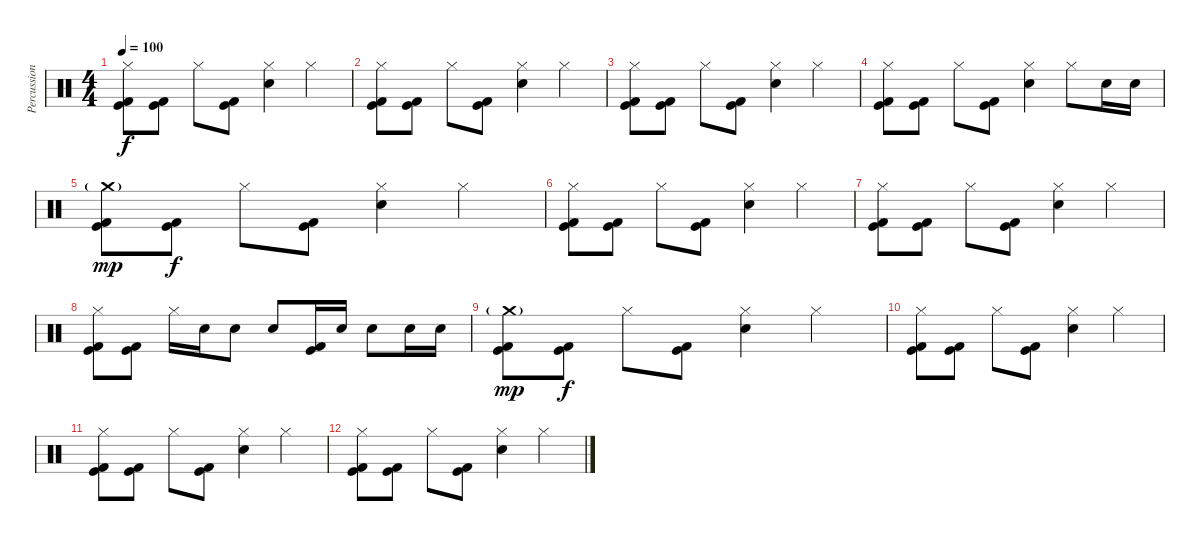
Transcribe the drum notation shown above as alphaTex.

\track ("Percussion" "Percussion") {instrument percussion}
\staff {score}
\articulation defaults
\ts (4 4)
\tempo 100
\clef neutral
\ks c
("Hi-Hat (closed)" "Kick (hit)" "Kick (hit) 2").8{dy f volume 8} ("Kick (hit)" "Kick (hit) 2").8 "Hi-Hat (closed)".8 ("Kick (hit)" "Kick (hit) 2").8 ("Hi-Hat (closed)" "Electric Snare (hit)").4 "Hi-Hat (closed)".4 |
("Hi-Hat (closed)" "Kick (hit)" "Kick (hit) 2").8 ("Kick (hit)" "Kick (hit) 2").8 "Hi-Hat (closed)".8 ("Kick (hit)" "Kick (hit) 2").8 ("Hi-Hat (closed)" "Electric Snare (hit)").4 "Hi-Hat (closed)".4 |
("Hi-Hat (closed)" "Kick (hit)" "Kick (hit) 2").8 ("Kick (hit)" "Kick (hit) 2").8 "Hi-Hat (closed)".8 ("Kick (hit)" "Kick (hit) 2").8 ("Hi-Hat (closed)" "Electric Snare (hit)").4 "Hi-Hat (closed)".4 |
("Hi-Hat (closed)" "Kick (hit)" "Kick (hit) 2").8 ("Kick (hit)" "Kick (hit) 2").8 "Hi-Hat (closed)".8 ("Kick (hit)" "Kick (hit) 2").8 ("Hi-Hat (closed)" "Electric Snare (hit)").4 "Hi-Hat (closed)".8 "Electric Snare (hit)".16 "Electric Snare (hit)".16 |
("Crash medium (hit)"{g} "Kick (hit)" "Kick (hit) 2").8{dy mp volume 4} ("Kick (hit)" "Kick (hit) 2").8{dy f} "Hi-Hat (closed)".8 ("Kick (hit)" "Kick (hit) 2").8 ("Hi-Hat (closed)" "Electric Snare (hit)").4 "Hi-Hat (closed)".4 |
("Hi-Hat (closed)" "Kick (hit)" "Kick (hit) 2").8 ("Kick (hit)" "Kick (hit) 2").8 "Hi-Hat (closed)".8 ("Kick (hit)" "Kick (hit) 2").8 ("Hi-Hat (closed)" "Electric Snare (hit)").4 "Hi-Hat (closed)".4 |
("Hi-Hat (closed)" "Kick (hit)" "Kick (hit) 2").8 ("Kick (hit)" "Kick (hit) 2").8 "Hi-Hat (closed)".8 ("Kick (hit)" "Kick (hit) 2").8 ("Hi-Hat (closed)" "Electric Snare (hit)").4 "Hi-Hat (closed)".4 |
("Hi-Hat (closed)" "Kick (hit)" "Kick (hit) 2").8 ("Kick (hit)" "Kick (hit) 2").8 "Hi-Hat (closed)".16 "Electric Snare (hit)".16 "Electric Snare (hit)".8 "Electric Snare (hit)".8 ("Kick (hit)" "Kick (hit) 2").16 "Electric Snare (hit)".16 "Electric Snare (hit)".8 "Electric Snare (hit)".16 "Electric Snare (hit)".16 |
("Crash medium (hit)"{g} "Kick (hit)" "Kick (hit) 2").8{dy mp volume 0} ("Kick (hit)" "Kick (hit) 2").8{dy f} "Hi-Hat (closed)".8 ("Kick (hit)" "Kick (hit) 2").8 ("Hi-Hat (closed)" "Electric Snare (hit)").4 "Hi-Hat (closed)".4 |
("Hi-Hat (closed)" "Kick (hit)" "Kick (hit) 2").8 ("Kick (hit)" "Kick (hit) 2").8 "Hi-Hat (closed)".8 ("Kick (hit)" "Kick (hit) 2").8 ("Hi-Hat (closed)" "Electric Snare (hit)").4 "Hi-Hat (closed)".4 |
("Hi-Hat (closed)" "Kick (hit)" "Kick (hit) 2").8 ("Kick (hit)" "Kick (hit) 2").8 "Hi-Hat (closed)".8 ("Kick (hit)" "Kick (hit) 2").8 ("Hi-Hat (closed)" "Electric Snare (hit)").4 "Hi-Hat (closed)".4 |
("Hi-Hat (closed)" "Kick (hit)" "Kick (hit) 2").8 ("Kick (hit)" "Kick (hit) 2").8 "Hi-Hat (closed)".8 ("Kick (hit)" "Kick (hit) 2").8 ("Hi-Hat (closed)" "Electric Snare (hit)").4 "Hi-Hat (closed)".4
